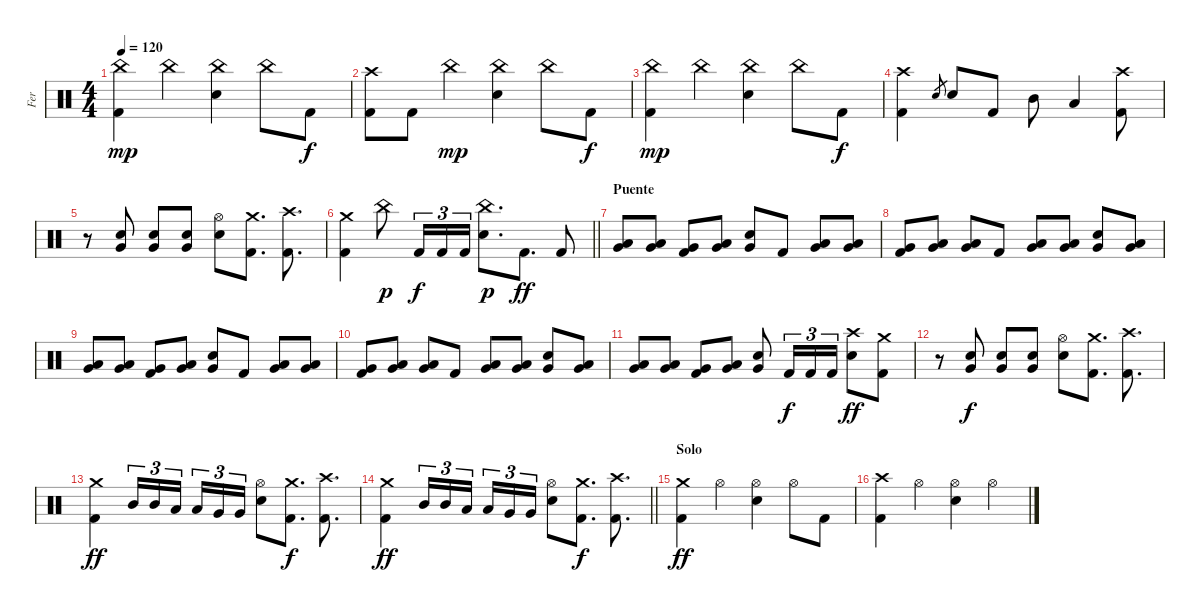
\track ("Fer" "Fer") {instrument percussion}
\staff {score}
\articulation defaults
\ts (4 4)
\tempo 120
\clef neutral
\ks c
("China (hit)" "Kick (hit) 2").4{dy mp} "China (hit)".4 ("China (hit)" "Snare (hit) 2").4 "China (hit)".8 "Kick (hit) 2".8{dy f} |
("Crash high (hit)" "Kick (hit) 2").8 "Kick (hit) 2".8 "China (hit)".4{dy mp} ("China (hit)" "Snare (hit) 2").4 "China (hit)".8 "Kick (hit) 2".8{dy f} |
("China (hit)" "Kick (hit) 2").4{dy mp} "China (hit)".4 ("China (hit)" "Snare (hit) 2").4 "China (hit)".8 "Kick (hit) 2".8{dy f} |
("Crash high (hit)" "Kick (hit) 2").4 "Snare (hit) 2".8{gr} "Snare (hit) 2".8 "Kick (hit) 2".8 "Mid Tom (hit)".8 "Low Tom (hit)".4 ("Crash high (hit)" "Kick (hit) 2").8 |
r.8 ("Snare (hit) 2" "Very Low Tom (hit)").8 ("Snare (hit) 2" "Very Low Tom (hit)").8 ("Snare (hit) 2" "Very Low Tom (hit)").8 ("Hi-Hat (open)" "Snare (hit) 2").8 ("Crash medium (hit)" "Kick (hit) 2").8{d} ("Crash high (hit)" "Kick (hit) 2").8{d} |
\barLineRight lightlight
("Crash medium (hit)" "Kick (hit) 2").4 "China (hit)".8{dy p} "Kick (hit) 2".16{tu (3 2) dy f} "Kick (hit) 2".16{tu (3 2)} "Kick (hit) 2".16{tu (3 2)} ("China (hit)" "Snare (hit) 2").8{d dy p} "Kick (hit) 2".8{d dy ff} "Kick (hit) 2".8 |
\section ("" "Puente")
("Low Tom (hit)" "Very Low Tom (hit)").8 ("Low Tom (hit)" "Very Low Tom (hit)").8 ("Very Low Tom (hit)" "Kick (hit) 2").8 ("Low Tom (hit)" "Very Low Tom (hit)").8 ("Snare (hit) 2" "Very Low Tom (hit)").8 "Kick (hit) 2".8 ("Low Tom (hit)" "Very Low Tom (hit)").8 ("Low Tom (hit)" "Very Low Tom (hit)").8 |
("Very Low Tom (hit)" "Kick (hit) 2").8 ("Low Tom (hit)" "Very Low Tom (hit)").8 ("Low Tom (hit)" "Very Low Tom (hit)").8 "Kick (hit) 2".8 ("Low Tom (hit)" "Very Low Tom (hit)").8 ("Low Tom (hit)" "Very Low Tom (hit)").8 ("Snare (hit) 2" "Very Low Tom (hit)").8 ("Low Tom (hit)" "Very Low Tom (hit)").8 |
("Low Tom (hit)" "Very Low Tom (hit)").8 ("Low Tom (hit)" "Very Low Tom (hit)").8 ("Very Low Tom (hit)" "Kick (hit) 2").8 ("Low Tom (hit)" "Very Low Tom (hit)").8 ("Snare (hit) 2" "Very Low Tom (hit)").8 "Kick (hit) 2".8 ("Low Tom (hit)" "Very Low Tom (hit)").8 ("Low Tom (hit)" "Very Low Tom (hit)").8 |
("Very Low Tom (hit)" "Kick (hit) 2").8 ("Low Tom (hit)" "Very Low Tom (hit)").8 ("Low Tom (hit)" "Very Low Tom (hit)").8 "Kick (hit) 2".8 ("Low Tom (hit)" "Very Low Tom (hit)").8 ("Low Tom (hit)" "Very Low Tom (hit)").8 ("Snare (hit) 2" "Very Low Tom (hit)").8 ("Low Tom (hit)" "Very Low Tom (hit)").8 |
("Low Tom (hit)" "Very Low Tom (hit)").8 ("Low Tom (hit)" "Very Low Tom (hit)").8 ("Very Low Tom (hit)" "Kick (hit) 2").8 ("Low Tom (hit)" "Very Low Tom (hit)").8 ("Snare (hit) 2" "Very Low Tom (hit)").8 "Kick (hit) 2".16{tu (3 2) dy f} "Kick (hit) 2".16{tu (3 2)} "Kick (hit) 2".16{tu (3 2)} ("Crash high (hit)" "Snare (hit) 2").8{dy ff} ("Crash medium (hit)" "Kick (hit) 2").8 |
r.8 ("Snare (hit) 2" "Very Low Tom (hit)").8{dy f} ("Snare (hit) 2" "Very Low Tom (hit)").8 ("Snare (hit) 2" "Very Low Tom (hit)").8 ("Hi-Hat (open)" "Snare (hit) 2").8 ("Crash medium (hit)" "Kick (hit) 2").8{d} ("Crash high (hit)" "Kick (hit) 2").8{d} |
("Crash medium (hit)" "Kick (hit) 2").4{dy ff} "Mid Tom (hit)".16{tu (3 2)} "Mid Tom (hit)".16{tu (3 2)} "Low Tom (hit)".16{tu (3 2) beam splitsecondary} "Low Tom (hit)".16{tu (3 2)} "Very Low Tom (hit)".16{tu (3 2)} "Very Low Tom (hit)".16{tu (3 2)} ("Hi-Hat (open)" "Snare (hit) 2").8 ("Crash medium (hit)" "Kick (hit) 2").8{d dy f} ("Crash high (hit)" "Kick (hit) 2").8{d} |
\barLineRight lightlight
("Crash medium (hit)" "Kick (hit) 2").4{dy ff} "Mid Tom (hit)".16{tu (3 2)} "Mid Tom (hit)".16{tu (3 2)} "Low Tom (hit)".16{tu (3 2) beam splitsecondary} "Low Tom (hit)".16{tu (3 2)} "Very Low Tom (hit)".16{tu (3 2)} "Very Low Tom (hit)".16{tu (3 2)} ("Hi-Hat (open)" "Snare (hit) 2").8 ("Crash medium (hit)" "Kick (hit) 2").8{d dy f} ("Crash high (hit)" "Kick (hit) 2").8{d} |
\section ("" "Solo")
("Crash medium (hit)" "Kick (hit) 2").4{dy ff} "Hi-Hat (open)".4 ("Hi-Hat (open)" "Snare (hit) 2").4 "Hi-Hat (open)".8 "Kick (hit) 2".8 |
("Crash high (hit)" "Kick (hit) 2").4 "Hi-Hat (open)".4 ("Hi-Hat (open)" "Snare (hit) 2").4 "Hi-Hat (open)".4
